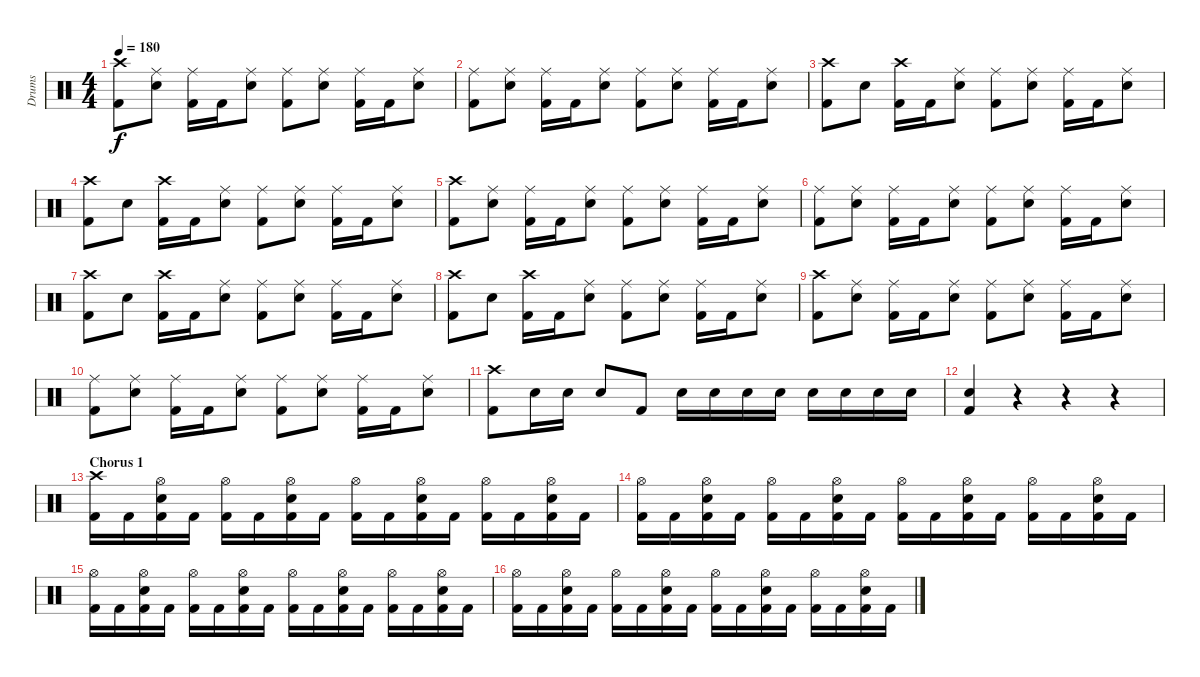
\track ("Drums" "Drums") {instrument percussion}
\staff {score}
\articulation defaults
\ts (4 4)
\tempo 180
\clef neutral
\ks c
("Crash high (hit)" "Kick (hit) 2").8{dy f} ("Ride (middle)" "Snare (hit) 2").8 ("Ride (middle)" "Kick (hit) 2").16 "Kick (hit) 2".16 ("Ride (middle)" "Snare (hit) 2").8 ("Ride (middle)" "Kick (hit) 2").8 ("Ride (middle)" "Snare (hit) 2").8 ("Ride (middle)" "Kick (hit) 2").16 "Kick (hit) 2".16 ("Ride (middle)" "Snare (hit) 2").8 |
("Ride (middle)" "Kick (hit) 2").8 ("Ride (middle)" "Snare (hit) 2").8 ("Ride (middle)" "Kick (hit) 2").16 "Kick (hit) 2".16 ("Ride (middle)" "Snare (hit) 2").8 ("Ride (middle)" "Kick (hit) 2").8 ("Ride (middle)" "Snare (hit) 2").8 ("Ride (middle)" "Kick (hit) 2").16 "Kick (hit) 2".16 ("Ride (middle)" "Snare (hit) 2").8 |
("Crash high (hit)" "Kick (hit) 2").8 "Snare (hit) 2".8 ("Crash high (hit)" "Kick (hit) 2").16 "Kick (hit) 2".16 ("Ride (middle)" "Snare (hit) 2").8 ("Ride (middle)" "Kick (hit) 2").8 ("Ride (middle)" "Snare (hit) 2").8 ("Ride (middle)" "Kick (hit) 2").16 "Kick (hit) 2".16 ("Ride (middle)" "Snare (hit) 2").8 |
("Crash high (hit)" "Kick (hit) 2").8 "Snare (hit) 2".8 ("Crash high (hit)" "Kick (hit) 2").16 "Kick (hit) 2".16 ("Ride (middle)" "Snare (hit) 2").8 ("Ride (middle)" "Kick (hit) 2").8 ("Ride (middle)" "Snare (hit) 2").8 ("Ride (middle)" "Kick (hit) 2").16 "Kick (hit) 2".16 ("Ride (middle)" "Snare (hit) 2").8 |
("Crash high (hit)" "Kick (hit) 2").8 ("Ride (middle)" "Snare (hit) 2").8 ("Ride (middle)" "Kick (hit) 2").16 "Kick (hit) 2".16 ("Ride (middle)" "Snare (hit) 2").8 ("Ride (middle)" "Kick (hit) 2").8 ("Ride (middle)" "Snare (hit) 2").8 ("Ride (middle)" "Kick (hit) 2").16 "Kick (hit) 2".16 ("Ride (middle)" "Snare (hit) 2").8 |
("Ride (middle)" "Kick (hit) 2").8 ("Ride (middle)" "Snare (hit) 2").8 ("Ride (middle)" "Kick (hit) 2").16 "Kick (hit) 2".16 ("Ride (middle)" "Snare (hit) 2").8 ("Ride (middle)" "Kick (hit) 2").8 ("Ride (middle)" "Snare (hit) 2").8 ("Ride (middle)" "Kick (hit) 2").16 "Kick (hit) 2".16 ("Ride (middle)" "Snare (hit) 2").8 |
("Crash high (hit)" "Kick (hit) 2").8 "Snare (hit) 2".8 ("Crash high (hit)" "Kick (hit) 2").16 "Kick (hit) 2".16 ("Ride (middle)" "Snare (hit) 2").8 ("Ride (middle)" "Kick (hit) 2").8 ("Ride (middle)" "Snare (hit) 2").8 ("Ride (middle)" "Kick (hit) 2").16 "Kick (hit) 2".16 ("Ride (middle)" "Snare (hit) 2").8 |
("Crash high (hit)" "Kick (hit) 2").8 "Snare (hit) 2".8 ("Crash high (hit)" "Kick (hit) 2").16 "Kick (hit) 2".16 ("Ride (middle)" "Snare (hit) 2").8 ("Ride (middle)" "Kick (hit) 2").8 ("Ride (middle)" "Snare (hit) 2").8 ("Ride (middle)" "Kick (hit) 2").16 "Kick (hit) 2".16 ("Ride (middle)" "Snare (hit) 2").8 |
("Crash high (hit)" "Kick (hit) 2").8 ("Ride (middle)" "Snare (hit) 2").8 ("Ride (middle)" "Kick (hit) 2").16 "Kick (hit) 2".16 ("Ride (middle)" "Snare (hit) 2").8 ("Ride (middle)" "Kick (hit) 2").8 ("Ride (middle)" "Snare (hit) 2").8 ("Ride (middle)" "Kick (hit) 2").16 "Kick (hit) 2".16 ("Ride (middle)" "Snare (hit) 2").8 |
("Ride (middle)" "Kick (hit) 2").8 ("Ride (middle)" "Snare (hit) 2").8 ("Ride (middle)" "Kick (hit) 2").16 "Kick (hit) 2".16 ("Ride (middle)" "Snare (hit) 2").8 ("Ride (middle)" "Kick (hit) 2").8 ("Ride (middle)" "Snare (hit) 2").8 ("Ride (middle)" "Kick (hit) 2").16 "Kick (hit) 2".16 ("Ride (middle)" "Snare (hit) 2").8 |
("Crash high (hit)" "Kick (hit) 2").8 "Snare (hit) 2".16 "Snare (hit) 2".16 "Snare (hit) 2".8 "Kick (hit) 2".8 "Snare (hit) 2".16 "Snare (hit) 2".16 "Snare (hit) 2".16 "Snare (hit) 2".16 "Snare (hit) 2".16 "Snare (hit) 2".16 "Snare (hit) 2".16 "Snare (hit) 2".16 |
("Snare (hit) 2" "Kick (hit) 2").4 r.4 r.4 r.4 |
\section ("" "Chorus 1")
("Crash high (hit)" "Kick (hit) 2").16 "Kick (hit) 2".16 ("Hi-Hat (open)" "Snare (hit) 2" "Kick (hit) 2").16 "Kick (hit) 2".16 ("Hi-Hat (open)" "Kick (hit) 2").16 "Kick (hit) 2".16 ("Hi-Hat (open)" "Snare (hit) 2" "Kick (hit) 2").16 "Kick (hit) 2".16 ("Hi-Hat (open)" "Kick (hit) 2").16 "Kick (hit) 2".16 ("Hi-Hat (open)" "Snare (hit) 2" "Kick (hit) 2").16 "Kick (hit) 2".16 ("Hi-Hat (open)" "Kick (hit) 2").16 "Kick (hit) 2".16 ("Hi-Hat (open)" "Snare (hit) 2" "Kick (hit) 2").16 "Kick (hit) 2".16 |
("Hi-Hat (open)" "Kick (hit) 2").16 "Kick (hit) 2".16 ("Hi-Hat (open)" "Snare (hit) 2" "Kick (hit) 2").16 "Kick (hit) 2".16 ("Hi-Hat (open)" "Kick (hit) 2").16 "Kick (hit) 2".16 ("Hi-Hat (open)" "Snare (hit) 2" "Kick (hit) 2").16 "Kick (hit) 2".16 ("Hi-Hat (open)" "Kick (hit) 2").16 "Kick (hit) 2".16 ("Hi-Hat (open)" "Snare (hit) 2" "Kick (hit) 2").16 "Kick (hit) 2".16 ("Hi-Hat (open)" "Kick (hit) 2").16 "Kick (hit) 2".16 ("Hi-Hat (open)" "Snare (hit) 2" "Kick (hit) 2").16 "Kick (hit) 2".16 |
("Hi-Hat (open)" "Kick (hit) 2").16 "Kick (hit) 2".16 ("Hi-Hat (open)" "Snare (hit) 2" "Kick (hit) 2").16 "Kick (hit) 2".16 ("Hi-Hat (open)" "Kick (hit) 2").16 "Kick (hit) 2".16 ("Hi-Hat (open)" "Snare (hit) 2" "Kick (hit) 2").16 "Kick (hit) 2".16 ("Hi-Hat (open)" "Kick (hit) 2").16 "Kick (hit) 2".16 ("Hi-Hat (open)" "Snare (hit) 2" "Kick (hit) 2").16 "Kick (hit) 2".16 ("Hi-Hat (open)" "Kick (hit) 2").16 "Kick (hit) 2".16 ("Hi-Hat (open)" "Snare (hit) 2" "Kick (hit) 2").16 "Kick (hit) 2".16 |
("Hi-Hat (open)" "Kick (hit) 2").16 "Kick (hit) 2".16 ("Hi-Hat (open)" "Snare (hit) 2" "Kick (hit) 2").16 "Kick (hit) 2".16 ("Hi-Hat (open)" "Kick (hit) 2").16 "Kick (hit) 2".16 ("Hi-Hat (open)" "Snare (hit) 2" "Kick (hit) 2").16 "Kick (hit) 2".16 ("Hi-Hat (open)" "Kick (hit) 2").16 "Kick (hit) 2".16 ("Hi-Hat (open)" "Snare (hit) 2" "Kick (hit) 2").16 "Kick (hit) 2".16 ("Hi-Hat (open)" "Kick (hit) 2").16 "Kick (hit) 2".16 ("Hi-Hat (open)" "Snare (hit) 2" "Kick (hit) 2").16 "Kick (hit) 2".16
